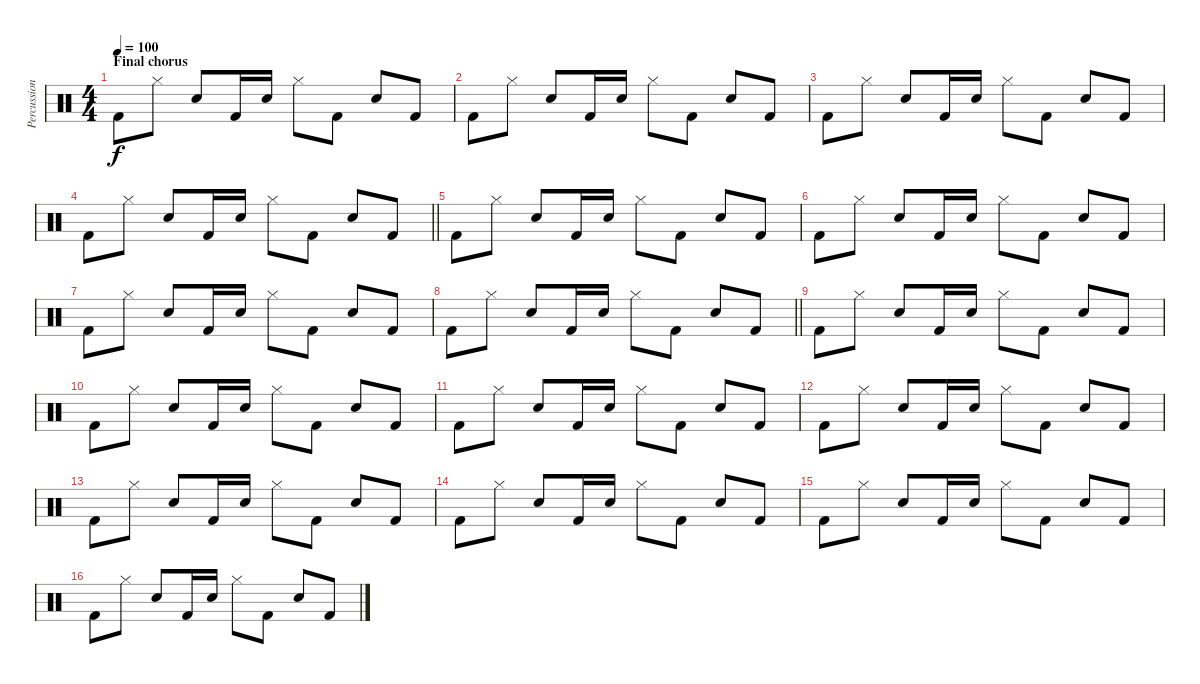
\track ("Percussion" "Percussion") {instrument percussion}
\staff {score}
\articulation defaults
\ts (4 4)
\section ("" "Final chorus")
\tempo 100
\clef neutral
\ks c "Kick (hit) 2".8{dy f} "Hi-Hat (closed)".8 "Electric Snare (hit)".8 "Kick (hit) 2".16 "Electric Snare (hit)".16 "Hi-Hat (closed)".8 "Kick (hit) 2".8 "Electric Snare (hit)".8 "Kick (hit) 2".8
|
"Kick (hit) 2".8 "Hi-Hat (closed)".8 "Electric Snare (hit)".8 "Kick (hit) 2".16 "Electric Snare (hit)".16 "Hi-Hat (closed)".8 "Kick (hit) 2".8 "Electric Snare (hit)".8 "Kick (hit) 2".8 |
"Kick (hit) 2".8 "Hi-Hat (closed)".8 "Electric Snare (hit)".8 "Kick (hit) 2".16 "Electric Snare (hit)".16 "Hi-Hat (closed)".8 "Kick (hit) 2".8 "Electric Snare (hit)".8 "Kick (hit) 2".8 |
\barLineRight lightlight "Kick (hit) 2".8 "Hi-Hat (closed)".8 "Electric Snare (hit)".8 "Kick (hit) 2".16 "Electric Snare (hit)".16 "Hi-Hat (closed)".8 "Kick (hit) 2".8 "Electric Snare (hit)".8 "Kick (hit) 2".8
|
"Kick (hit) 2".8 "Hi-Hat (closed)".8 "Electric Snare (hit)".8 "Kick (hit) 2".16 "Electric Snare (hit)".16 "Hi-Hat (closed)".8 "Kick (hit) 2".8 "Electric Snare (hit)".8 "Kick (hit) 2".8 |
"Kick (hit) 2".8 "Hi-Hat (closed)".8 "Electric Snare (hit)".8 "Kick (hit) 2".16 "Electric Snare (hit)".16 "Hi-Hat (closed)".8 "Kick (hit) 2".8 "Electric Snare (hit)".8 "Kick (hit) 2".8 |
"Kick (hit) 2".8 "Hi-Hat (closed)".8 "Electric Snare (hit)".8 "Kick (hit) 2".16 "Electric Snare (hit)".16 "Hi-Hat (closed)".8 "Kick (hit) 2".8 "Electric Snare (hit)".8 "Kick (hit) 2".8 |
\barLineRight lightlight "Kick (hit) 2".8 "Hi-Hat (closed)".8 "Electric Snare (hit)".8 "Kick (hit) 2".16 "Electric Snare (hit)".16 "Hi-Hat (closed)".8 "Kick (hit) 2".8 "Electric Snare (hit)".8 "Kick (hit) 2".8
|
"Kick (hit) 2".8 "Hi-Hat (closed)".8 "Electric Snare (hit)".8 "Kick (hit) 2".16 "Electric Snare (hit)".16 "Hi-Hat (closed)".8 "Kick (hit) 2".8 "Electric Snare (hit)".8 "Kick (hit) 2".8 |
"Kick (hit) 2".8 "Hi-Hat (closed)".8 "Electric Snare (hit)".8 "Kick (hit) 2".16 "Electric Snare (hit)".16 "Hi-Hat (closed)".8 "Kick (hit) 2".8 "Electric Snare (hit)".8 "Kick (hit) 2".8 |
"Kick (hit) 2".8 "Hi-Hat (closed)".8 "Electric Snare (hit)".8 "Kick (hit) 2".16 "Electric Snare (hit)".16 "Hi-Hat (closed)".8 "Kick (hit) 2".8 "Electric Snare (hit)".8 "Kick (hit) 2".8 |
"Kick (hit) 2".8 "Hi-Hat (closed)".8 "Electric Snare (hit)".8 "Kick (hit) 2".16 "Electric Snare (hit)".16 "Hi-Hat (closed)".8 "Kick (hit) 2".8 "Electric Snare (hit)".8 "Kick (hit) 2".8 |
"Kick (hit) 2".8 "Hi-Hat (closed)".8 "Electric Snare (hit)".8 "Kick (hit) 2".16 "Electric Snare (hit)".16 "Hi-Hat (closed)".8 "Kick (hit) 2".8 "Electric Snare (hit)".8 "Kick (hit) 2".8 |
"Kick (hit) 2".8 "Hi-Hat (closed)".8 "Electric Snare (hit)".8 "Kick (hit) 2".16 "Electric Snare (hit)".16 "Hi-Hat (closed)".8 "Kick (hit) 2".8 "Electric Snare (hit)".8 "Kick (hit) 2".8 |
"Kick (hit) 2".8 "Hi-Hat (closed)".8 "Electric Snare (hit)".8 "Kick (hit) 2".16 "Electric Snare (hit)".16 "Hi-Hat (closed)".8 "Kick (hit) 2".8 "Electric Snare (hit)".8 "Kick (hit) 2".8 |
"Kick (hit) 2".8 "Hi-Hat (closed)".8 "Electric Snare (hit)".8 "Kick (hit) 2".16 "Electric Snare (hit)".16 "Hi-Hat (closed)".8 "Kick (hit) 2".8 "Electric Snare (hit)".8 "Kick (hit) 2".8
